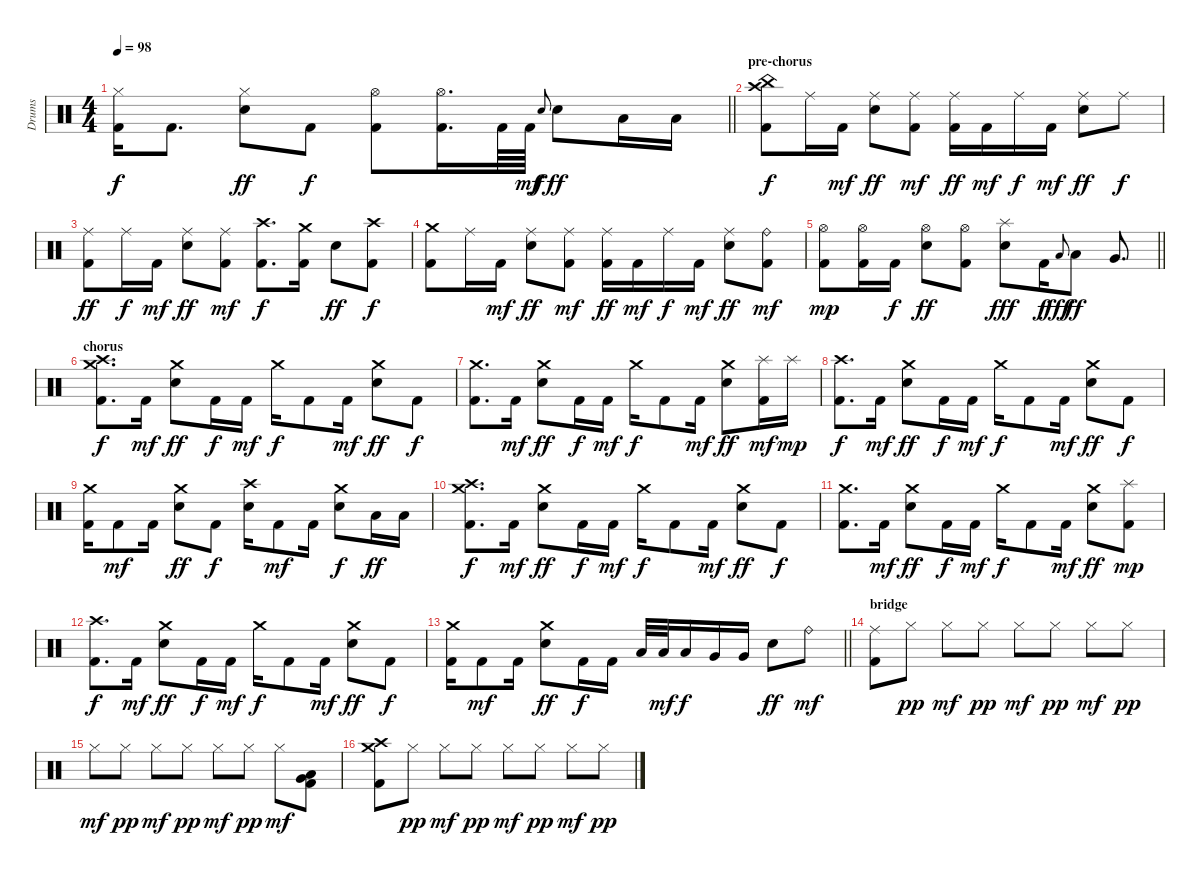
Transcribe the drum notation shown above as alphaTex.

\track ("Drums" "Drums") {instrument percussion}
\staff {score}
\articulation defaults
\ts (4 4)
\tempo 98
\clef neutral
\barLineRight lightlight
\ks c
("Hi-Hat (closed)" "Kick (hit) 2").16{dy f} "Kick (hit) 2".8{d} ("Hi-Hat (closed)" "Electric Snare (hit)").8{dy ff} "Kick (hit) 2".8{dy f} ("Hi-Hat (open)" "Kick (hit) 2").8 ("Hi-Hat (open)" "Kick (hit) 2").16{d} "Kick (hit) 2".64 "Kick (hit) 2".64{dy mf} "Electric Snare (hit)".8{gr onbeat dy f} "Electric Snare (hit)".8{dy ff} "Low Tom (hit)".16 "Low Tom (hit)".16 |
\section ("" "pre-chorus")
("China (hit)" "Crash high (hit)" "Kick (hit) 2").8{dy f} "Ride (middle)".16 "Kick (hit) 2".16{dy mf} ("Ride (middle)" "Electric Snare (hit)").8{dy ff} ("Ride (middle)" "Kick (hit) 2").8{dy mf} ("Ride (middle)" "Kick (hit) 2").16{dy ff} "Kick (hit) 2".16{dy mf} "Ride (middle)".16{dy f} "Kick (hit) 2".16{dy mf} ("Ride (middle)" "Electric Snare (hit)").8{dy ff} "Ride (middle)".8{dy f} |
("Ride (middle)" "Kick (hit) 2").8{dy ff} "Ride (middle)".16{dy f} "Kick (hit) 2".16{dy mf} ("Ride (middle)" "Electric Snare (hit)").8{dy ff} ("Ride (middle)" "Kick (hit) 2").8{dy mf} ("Crash high (hit)" "Kick (hit) 2").8{d dy f} ("Crash medium (hit)" "Kick (hit) 2").16 "Electric Snare (hit)".8{dy ff} ("Crash high (hit)" "Kick (hit) 2").8{dy f} |
("Crash medium (hit)" "Kick (hit) 2").8 "Ride (middle)".16 "Kick (hit) 2".16{dy mf} ("Ride (middle)" "Electric Snare (hit)").8{dy ff} ("Ride (middle)" "Kick (hit) 2").8{dy mf} ("Ride (middle)" "Kick (hit) 2").16{dy ff} "Kick (hit) 2".16{dy mf} "Ride (middle)".16{dy f} "Kick (hit) 2".16{dy mf} ("Ride (middle)" "Electric Snare (hit)").8{dy ff} ("Ride (bell)" "Kick (hit) 2").8{dy mf} |
\barLineRight lightlight
("Hi-Hat (open)" "Kick (hit) 2").8{dy mp} ("Hi-Hat (open)" "Kick (hit) 2").16 "Kick (hit) 2".16{dy f} ("Hi-Hat (open)" "Electric Snare (hit)").8{dy ff} ("Hi-Hat (open)" "Kick (hit) 2").8 ("Splash (hit)" "Electric Snare (hit)").8{dy fff} "Kick (hit) 2".16{dy f} "Low Tom (hit)"{x}.8{gr onbeat dy fff} "Low Tom (hit)".8{dy ff} "Very Low Tom (hit)".8{d} |
\section ("" "chorus")
("Crash medium (hit)" "Crash high (hit)" "Kick (hit) 2").8{d dy f} "Kick (hit) 2".16{dy mf} ("Crash medium (hit)" "Electric Snare (hit)").8{dy ff} "Kick (hit) 2".16{dy f} "Kick (hit) 2".16{dy mf} "Crash medium (hit)".16{dy f} "Kick (hit) 2".8 "Kick (hit) 2".16{dy mf} ("Crash medium (hit)" "Electric Snare (hit)").8{dy ff} "Kick (hit) 2".8{dy f} |
("Crash medium (hit)" "Kick (hit) 2").8{d} "Kick (hit) 2".16{dy mf} ("Crash medium (hit)" "Electric Snare (hit)").8{dy ff} "Kick (hit) 2".16{dy f} "Kick (hit) 2".16{dy mf} "Crash medium (hit)".16{dy f} "Kick (hit) 2".8 "Kick (hit) 2".16{dy mf} ("Crash medium (hit)" "Electric Snare (hit)").8{dy ff} ("Splash (hit)" "Kick (hit) 2").16{dy mf} "Splash (hit)".16{dy mp} |
("Crash high (hit)" "Kick (hit) 2").8{d dy f} "Kick (hit) 2".16{dy mf} ("Crash medium (hit)" "Electric Snare (hit)").8{dy ff} "Kick (hit) 2".16{dy f} "Kick (hit) 2".16{dy mf} "Crash medium (hit)".16{dy f} "Kick (hit) 2".8 "Kick (hit) 2".16{dy mf} ("Crash medium (hit)" "Electric Snare (hit)").8{dy ff} "Kick (hit) 2".8{dy f} |
("Crash medium (hit)" "Kick (hit) 2").16 "Kick (hit) 2".8{dy mf} "Kick (hit) 2".16 ("Crash medium (hit)" "Electric Snare (hit)").8{dy ff} "Kick (hit) 2".8{dy f} ("Crash high (hit)" "Electric Snare (hit)").16 "Kick (hit) 2".8{dy mf} "Kick (hit) 2".16 ("Crash medium (hit)" "Electric Snare (hit)").8{dy f} "Low Tom (hit)".16{dy ff} "Low Tom (hit)".16 |
("Crash medium (hit)" "Crash high (hit)" "Kick (hit) 2").8{d dy f} "Kick (hit) 2".16{dy mf} ("Crash medium (hit)" "Electric Snare (hit)").8{dy ff} "Kick (hit) 2".16{dy f} "Kick (hit) 2".16{dy mf} "Crash medium (hit)".16{dy f} "Kick (hit) 2".8 "Kick (hit) 2".16{dy mf} ("Crash medium (hit)" "Electric Snare (hit)").8{dy ff} "Kick (hit) 2".8{dy f} |
("Crash medium (hit)" "Kick (hit) 2").8{d} "Kick (hit) 2".16{dy mf} ("Crash medium (hit)" "Electric Snare (hit)").8{dy ff} "Kick (hit) 2".16{dy f} "Kick (hit) 2".16{dy mf} "Crash medium (hit)".16{dy f} "Kick (hit) 2".8 "Kick (hit) 2".16{dy mf} ("Crash medium (hit)" "Electric Snare (hit)").8{dy ff} ("Splash (hit)" "Kick (hit) 2").8{dy mp} |
("Crash high (hit)" "Kick (hit) 2").8{d dy f} "Kick (hit) 2".16{dy mf} ("Crash medium (hit)" "Electric Snare (hit)").8{dy ff} "Kick (hit) 2".16{dy f} "Kick (hit) 2".16{dy mf} "Crash medium (hit)".16{dy f} "Kick (hit) 2".8 "Kick (hit) 2".16{dy mf} ("Crash medium (hit)" "Electric Snare (hit)").8{dy ff} "Kick (hit) 2".8{dy f} |
\barLineRight lightlight
("Crash medium (hit)" "Kick (hit) 2").16 "Kick (hit) 2".8{dy mf} "Kick (hit) 2".16 ("Crash medium (hit)" "Electric Snare (hit)").8{dy ff} "Kick (hit) 2".16{dy f} "Kick (hit) 2".16 "Low Tom (hit)".32 "Low Tom (hit)".32{dy mf} "Low Tom (hit)".16{dy f} "Very Low Tom (hit)".16 "Very Low Tom (hit)".16 "Electric Snare (hit)".8{dy ff} "Ride (bell)".8{dy mf} |
\section ("" "bridge")
("Ride (middle)" "Kick (hit) 2").8 "Hi-Hat (closed)".8{dy pp} "Hi-Hat (closed)".8{dy mf} "Hi-Hat (closed)".8{dy pp} "Hi-Hat (closed)".8{dy mf} "Hi-Hat (closed)".8{dy pp} "Hi-Hat (closed)".8{dy mf} "Hi-Hat (closed)".8{dy pp} |
"Hi-Hat (closed)".8{dy mf} "Hi-Hat (closed)".8{dy pp} "Hi-Hat (closed)".8{dy mf} "Hi-Hat (closed)".8{dy pp} "Hi-Hat (closed)".8{dy mf} "Hi-Hat (closed)".8{dy pp} "Hi-Hat (closed)".8{dy mf} ("Very Low Tom (hit)" "Low Tom (hit)" "Kick (hit) 2").8 |
("Crash medium (hit)" "Crash high (hit)" "Kick (hit) 2").8 "Hi-Hat (closed)".8{dy pp} "Hi-Hat (closed)".8{dy mf} "Hi-Hat (closed)".8{dy pp} "Hi-Hat (closed)".8{dy mf} "Hi-Hat (closed)".8{dy pp} "Hi-Hat (closed)".8{dy mf} "Hi-Hat (closed)".8{dy pp}
